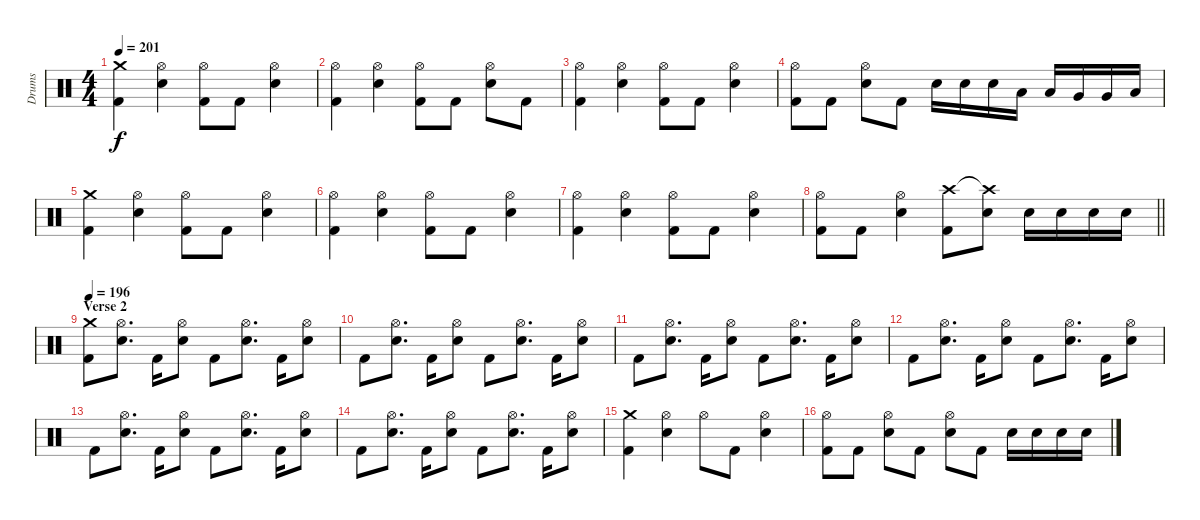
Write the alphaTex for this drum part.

\track ("Drums" "Drums") {instrument percussion}
\staff {score}
\articulation defaults
\ts (4 4)
\tempo 201
\clef neutral
\ks c
("Crash medium (hit)" "Kick (hit) 2").4{dy f} ("Hi-Hat (open)" "Electric Snare (hit)").4 ("Hi-Hat (open)" "Kick (hit) 2").8 "Kick (hit) 2".8 ("Hi-Hat (open)" "Electric Snare (hit)").4 |
("Hi-Hat (open)" "Kick (hit) 2").4 ("Hi-Hat (open)" "Electric Snare (hit)").4 ("Hi-Hat (open)" "Kick (hit) 2").8 "Kick (hit) 2".8 ("Hi-Hat (open)" "Electric Snare (hit)").8 "Kick (hit) 2".8 |
("Hi-Hat (open)" "Kick (hit) 2").4 ("Hi-Hat (open)" "Electric Snare (hit)").4 ("Hi-Hat (open)" "Kick (hit) 2").8 "Kick (hit) 2".8 ("Hi-Hat (open)" "Electric Snare (hit)").4 |
("Hi-Hat (open)" "Kick (hit) 2").8 "Kick (hit) 2".8 ("Hi-Hat (open)" "Electric Snare (hit)").8 "Kick (hit) 2".8 "Electric Snare (hit)".16 "Electric Snare (hit)".16 "Electric Snare (hit)".16 "Low Tom (hit)".16 "Low Tom (hit)".16 "Very Low Tom (hit)".16 "Very Low Tom (hit)".16 "Low Floor Tom (hit)".16 |
("Crash medium (hit)" "Kick (hit) 2").4 ("Hi-Hat (open)" "Electric Snare (hit)").4 ("Hi-Hat (open)" "Kick (hit) 2").8 "Kick (hit) 2".8 ("Hi-Hat (open)" "Electric Snare (hit)").4 |
("Hi-Hat (open)" "Kick (hit) 2").4 ("Hi-Hat (open)" "Electric Snare (hit)").4 ("Hi-Hat (open)" "Kick (hit) 2").8 "Kick (hit) 2".8 ("Hi-Hat (open)" "Electric Snare (hit)").4 |
("Hi-Hat (open)" "Kick (hit) 2").4 ("Hi-Hat (open)" "Electric Snare (hit)").4 ("Hi-Hat (open)" "Kick (hit) 2").8 "Kick (hit) 2".8 ("Hi-Hat (open)" "Electric Snare (hit)").4 |
\barLineRight lightlight
("Hi-Hat (open)" "Kick (hit) 2").8 "Kick (hit) 2".8 ("Hi-Hat (open)" "Electric Snare (hit)").4 ("Crash high (hit)" "Kick (hit) 2").8 ("Crash high (hit)"{t} "Electric Snare (hit)").8 "Electric Snare (hit)".16 "Electric Snare (hit)".16 "Electric Snare (hit)".16 "Electric Snare (hit)".16 |
\section ("" "Verse 2")
\tempo 196
("Crash medium (hit)" "Kick (hit) 2").8 ("Hi-Hat (open)" "Electric Snare (hit)").8{d} "Kick (hit) 2".16 ("Hi-Hat (open)" "Electric Snare (hit)").8 "Kick (hit) 2".8 ("Hi-Hat (open)" "Electric Snare (hit)").8{d} "Kick (hit) 2".16 ("Hi-Hat (open)" "Electric Snare (hit)").8 |
"Kick (hit) 2".8 ("Hi-Hat (open)" "Electric Snare (hit)").8{d} "Kick (hit) 2".16 ("Hi-Hat (open)" "Electric Snare (hit)").8 "Kick (hit) 2".8 ("Hi-Hat (open)" "Electric Snare (hit)").8{d} "Kick (hit) 2".16 ("Hi-Hat (open)" "Electric Snare (hit)").8 |
"Kick (hit) 2".8 ("Hi-Hat (open)" "Electric Snare (hit)").8{d} "Kick (hit) 2".16 ("Hi-Hat (open)" "Electric Snare (hit)").8 "Kick (hit) 2".8 ("Hi-Hat (open)" "Electric Snare (hit)").8{d} "Kick (hit) 2".16 ("Hi-Hat (open)" "Electric Snare (hit)").8 |
"Kick (hit) 2".8 ("Hi-Hat (open)" "Electric Snare (hit)").8{d} "Kick (hit) 2".16 ("Hi-Hat (open)" "Electric Snare (hit)").8 "Kick (hit) 2".8 ("Hi-Hat (open)" "Electric Snare (hit)").8{d} "Kick (hit) 2".16 ("Hi-Hat (open)" "Electric Snare (hit)").8 |
"Kick (hit) 2".8 ("Hi-Hat (open)" "Electric Snare (hit)").8{d} "Kick (hit) 2".16 ("Hi-Hat (open)" "Electric Snare (hit)").8 "Kick (hit) 2".8 ("Hi-Hat (open)" "Electric Snare (hit)").8{d} "Kick (hit) 2".16 ("Hi-Hat (open)" "Electric Snare (hit)").8 |
"Kick (hit) 2".8 ("Hi-Hat (open)" "Electric Snare (hit)").8{d} "Kick (hit) 2".16 ("Hi-Hat (open)" "Electric Snare (hit)").8 "Kick (hit) 2".8 ("Hi-Hat (open)" "Electric Snare (hit)").8{d} "Kick (hit) 2".16 ("Hi-Hat (open)" "Electric Snare (hit)").8 |
("Crash medium (hit)" "Kick (hit) 2").4 ("Hi-Hat (open)" "Electric Snare (hit)").4 "Hi-Hat (open)".8 "Kick (hit) 2".8 ("Hi-Hat (open)" "Electric Snare (hit)").4 |
("Hi-Hat (open)" "Kick (hit) 2").8 "Kick (hit) 2".8 ("Hi-Hat (open)" "Electric Snare (hit)").8 "Kick (hit) 2".8 ("Hi-Hat (open)" "Electric Snare (hit)").8 "Kick (hit) 2".8 "Electric Snare (hit)".16 "Electric Snare (hit)".16 "Electric Snare (hit)".16 "Electric Snare (hit)".16
